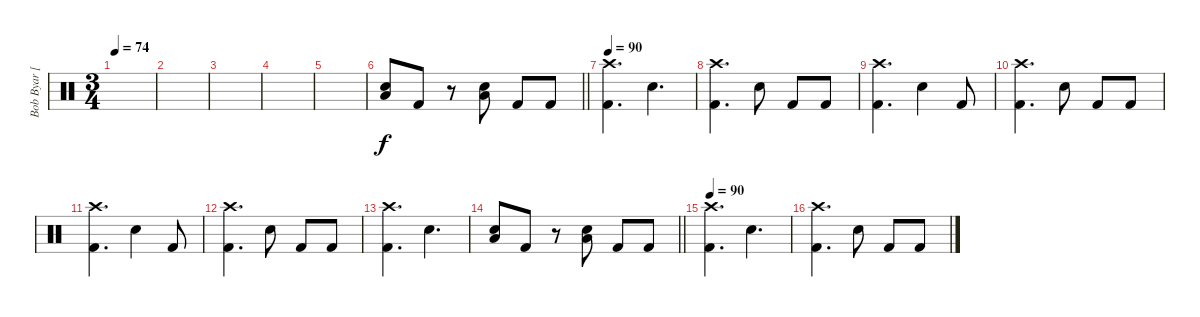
\track ("Bob Byar [Drums]" "Bob Byar [") {instrument percussion}
\staff {score}
\articulation defaults
\ts (3 4)
\tempo 74
\clef neutral
\ks c
|
|
|
|
|
\barLineRight lightlight
("Electric Snare (hit)" "Low Floor Tom (hit)").8 "Kick (hit) 2".8 r.8 ("Electric Snare (hit)" "Low Floor Tom (hit)").8 "Kick (hit) 2".8 "Kick (hit) 2".8 |
\tempo 90
("Crash high (hit)" "Kick (hit) 2").4{d} "Electric Snare (hit)".4{d} |
("Crash high (hit)" "Kick (hit) 2").4{d} "Electric Snare (hit)".8 "Kick (hit) 2".8 "Kick (hit) 2".8 |
("Crash high (hit)" "Kick (hit) 2").4{d} "Electric Snare (hit)".4 "Kick (hit) 2".8 |
("Crash high (hit)" "Kick (hit) 2").4{d} "Electric Snare (hit)".8 "Kick (hit) 2".8 "Kick (hit) 2".8 |
("Crash high (hit)" "Kick (hit) 2").4{d} "Electric Snare (hit)".4 "Kick (hit) 2".8 |
("Crash high (hit)" "Kick (hit) 2").4{d} "Electric Snare (hit)".8 "Kick (hit) 2".8 "Kick (hit) 2".8 |
("Crash high (hit)" "Kick (hit) 2").4{d} "Electric Snare (hit)".4{d} |
\barLineRight lightlight
("Electric Snare (hit)" "Low Floor Tom (hit)").8 "Kick (hit) 2".8 r.8 ("Electric Snare (hit)" "Low Floor Tom (hit)").8 "Kick (hit) 2".8 "Kick (hit) 2".8 |
\tempo 90
("Crash high (hit)" "Kick (hit) 2").4{d} "Electric Snare (hit)".4{d} |
("Crash high (hit)" "Kick (hit) 2").4{d} "Electric Snare (hit)".8 "Kick (hit) 2".8 "Kick (hit) 2".8
